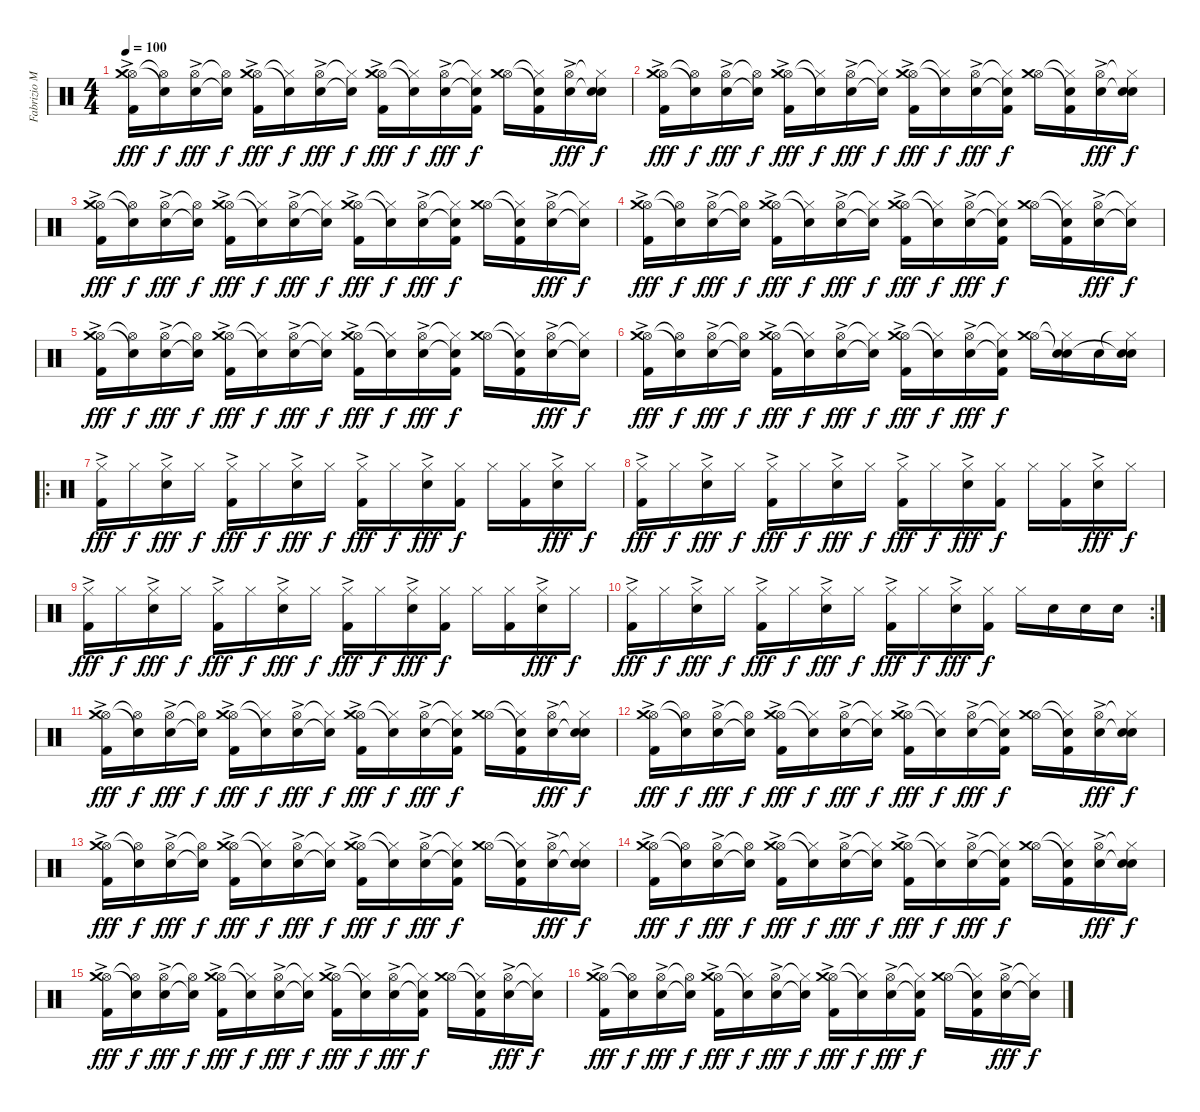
\track ("Fabrizio Morreti (drums)" "Fabrizio M") {instrument percussion}
\staff {score}
\articulation defaults
\ts (4 4)
\tempo 100
\clef neutral
\ks c
("Hi-Hat (open)" "Crash medium (hit)" "Kick (hit) 2"{ac}).16{dy fff} ("Hi-Hat (open)"{t} "Snare (hit)"{t}).16{dy f} ("Hi-Hat (open)" "Electric Snare (hit)"{ac}).16{dy fff} ("Hi-Hat (open)"{t} "Snare (hit)"{t}).16{dy f} ("Hi-Hat (open)" "Crash medium (hit)" "Kick (hit) 2"{ac}).16{dy fff} ("Hi-Hat (closed)"{t} "Snare (hit)"{t}).16{dy f} ("Hi-Hat (open)" "Electric Snare (hit)"{ac}).16{dy fff} ("Hi-Hat (closed)"{t} "Snare (hit)"{t}).16{dy f} ("Hi-Hat (open)" "Crash medium (hit)" "Kick (hit) 2"{ac}).16{dy fff} ("Hi-Hat (closed)"{t} "Snare (hit)"{t}).16{dy f} ("Hi-Hat (open)" "Electric Snare (hit)"{ac}).16{dy fff} ("Hi-Hat (closed)"{t} "Snare (hit)"{t} "Kick (hit) 2").16{dy f} ("Hi-Hat (open)" "Crash medium (hit)").16 ("Hi-Hat (closed)"{t} "Snare (hit)"{t} "Kick (hit) 2").16 ("Hi-Hat (open)" "Electric Snare (hit)"{ac}).16{dy fff} ("Hi-Hat (closed)"{t} "Snare (hit)"{t} "Electric Snare (hit)").16{dy f} |
("Hi-Hat (open)" "Crash medium (hit)" "Kick (hit) 2"{ac}).16{dy fff} ("Hi-Hat (open)"{t} "Snare (hit)"{t}).16{dy f} ("Hi-Hat (open)" "Electric Snare (hit)"{ac}).16{dy fff} ("Hi-Hat (open)"{t} "Snare (hit)"{t}).16{dy f} ("Hi-Hat (open)" "Crash medium (hit)" "Kick (hit) 2"{ac}).16{dy fff} ("Hi-Hat (closed)"{t} "Snare (hit)"{t}).16{dy f} ("Hi-Hat (open)" "Electric Snare (hit)"{ac}).16{dy fff} ("Hi-Hat (closed)"{t} "Snare (hit)"{t}).16{dy f} ("Hi-Hat (open)" "Crash medium (hit)" "Kick (hit) 2"{ac}).16{dy fff} ("Hi-Hat (closed)"{t} "Snare (hit)"{t}).16{dy f} ("Hi-Hat (open)" "Electric Snare (hit)"{ac}).16{dy fff} ("Hi-Hat (closed)"{t} "Snare (hit)"{t} "Kick (hit) 2").16{dy f} ("Hi-Hat (open)" "Crash medium (hit)").16 ("Hi-Hat (closed)"{t} "Snare (hit)"{t} "Kick (hit) 2").16 ("Hi-Hat (open)" "Electric Snare (hit)"{ac}).16{dy fff} ("Hi-Hat (closed)"{t} "Snare (hit)"{t} "Electric Snare (hit)").16{dy f} |
("Hi-Hat (open)" "Crash medium (hit)" "Kick (hit) 2"{ac}).16{dy fff} ("Hi-Hat (open)"{t} "Snare (hit)"{t}).16{dy f} ("Hi-Hat (open)" "Electric Snare (hit)"{ac}).16{dy fff} ("Hi-Hat (open)"{t} "Snare (hit)"{t}).16{dy f} ("Hi-Hat (open)" "Crash medium (hit)" "Kick (hit) 2"{ac}).16{dy fff} ("Hi-Hat (closed)"{t} "Snare (hit)"{t}).16{dy f} ("Hi-Hat (open)" "Electric Snare (hit)"{ac}).16{dy fff} ("Hi-Hat (closed)"{t} "Snare (hit)"{t}).16{dy f} ("Hi-Hat (open)" "Crash medium (hit)" "Kick (hit) 2"{ac}).16{dy fff} ("Hi-Hat (closed)"{t} "Snare (hit)"{t}).16{dy f} ("Hi-Hat (open)" "Electric Snare (hit)"{ac}).16{dy fff} ("Hi-Hat (closed)"{t} "Snare (hit)"{t} "Kick (hit) 2").16{dy f} ("Hi-Hat (open)" "Crash medium (hit)").16 ("Hi-Hat (closed)"{t} "Snare (hit)"{t} "Kick (hit) 2").16 ("Hi-Hat (open)" "Electric Snare (hit)"{ac}).16{dy fff} ("Hi-Hat (closed)"{t} "Snare (hit)"{t}).16{dy f} |
("Hi-Hat (open)" "Crash medium (hit)" "Kick (hit) 2"{ac}).16{dy fff} ("Hi-Hat (open)"{t} "Snare (hit)"{t}).16{dy f} ("Hi-Hat (open)" "Electric Snare (hit)"{ac}).16{dy fff} ("Hi-Hat (open)"{t} "Snare (hit)"{t}).16{dy f} ("Hi-Hat (open)" "Crash medium (hit)" "Kick (hit) 2"{ac}).16{dy fff} ("Hi-Hat (closed)"{t} "Snare (hit)"{t}).16{dy f} ("Hi-Hat (open)" "Electric Snare (hit)"{ac}).16{dy fff} ("Hi-Hat (closed)"{t} "Snare (hit)"{t}).16{dy f} ("Hi-Hat (open)" "Crash medium (hit)" "Kick (hit) 2"{ac}).16{dy fff} ("Hi-Hat (closed)"{t} "Snare (hit)"{t}).16{dy f} ("Hi-Hat (open)" "Electric Snare (hit)"{ac}).16{dy fff} ("Hi-Hat (closed)"{t} "Snare (hit)"{t} "Kick (hit) 2").16{dy f} ("Hi-Hat (open)" "Crash medium (hit)").16 ("Hi-Hat (closed)"{t} "Snare (hit)"{t} "Kick (hit) 2").16 ("Hi-Hat (open)" "Electric Snare (hit)"{ac}).16{dy fff} ("Hi-Hat (closed)"{t} "Snare (hit)"{t}).16{dy f} |
("Hi-Hat (open)" "Crash medium (hit)" "Kick (hit) 2"{ac}).16{dy fff} ("Hi-Hat (open)"{t} "Snare (hit)"{t}).16{dy f} ("Hi-Hat (open)" "Electric Snare (hit)"{ac}).16{dy fff} ("Hi-Hat (open)"{t} "Snare (hit)"{t}).16{dy f} ("Hi-Hat (open)" "Crash medium (hit)" "Kick (hit) 2"{ac}).16{dy fff} ("Hi-Hat (closed)"{t} "Snare (hit)"{t}).16{dy f} ("Hi-Hat (open)" "Electric Snare (hit)"{ac}).16{dy fff} ("Hi-Hat (closed)"{t} "Snare (hit)"{t}).16{dy f} ("Hi-Hat (open)" "Crash medium (hit)" "Kick (hit) 2"{ac}).16{dy fff} ("Hi-Hat (closed)"{t} "Snare (hit)"{t}).16{dy f} ("Hi-Hat (open)" "Electric Snare (hit)"{ac}).16{dy fff} ("Hi-Hat (closed)"{t} "Snare (hit)"{t} "Kick (hit) 2").16{dy f} ("Hi-Hat (open)" "Crash medium (hit)").16 ("Hi-Hat (closed)"{t} "Snare (hit)"{t} "Kick (hit) 2").16 ("Hi-Hat (open)" "Electric Snare (hit)"{ac}).16{dy fff} ("Hi-Hat (closed)"{t} "Snare (hit)"{t}).16{dy f} |
("Hi-Hat (open)" "Crash medium (hit)" "Kick (hit) 2"{ac}).16{dy fff} ("Hi-Hat (open)"{t} "Snare (hit)"{t}).16{dy f} ("Hi-Hat (open)" "Electric Snare (hit)"{ac}).16{dy fff} ("Hi-Hat (open)"{t} "Snare (hit)"{t}).16{dy f} ("Hi-Hat (open)" "Crash medium (hit)" "Kick (hit) 2"{ac}).16{dy fff} ("Hi-Hat (closed)"{t} "Snare (hit)"{t}).16{dy f} ("Hi-Hat (open)" "Electric Snare (hit)"{ac}).16{dy fff} ("Hi-Hat (closed)"{t} "Snare (hit)"{t}).16{dy f} ("Hi-Hat (open)" "Crash medium (hit)" "Kick (hit) 2"{ac}).16{dy fff} ("Hi-Hat (closed)"{t} "Snare (hit)"{t}).16{dy f} ("Hi-Hat (open)" "Electric Snare (hit)"{ac}).16{dy fff} ("Hi-Hat (closed)"{t} "Snare (hit)"{t} "Kick (hit) 2").16{dy f} ("Hi-Hat (open)" "Crash medium (hit)").16 ("Hi-Hat (closed)"{t} "Snare (hit)"{t} "Electric Snare (hit)").16 "Electric Snare (hit)".16 ("Hi-Hat (closed)"{t} "Snare (hit)"{t} "Electric Snare (hit)").16 |
\ro
("Hi-Hat (closed)" "Kick (hit) 2"{ac}).16{dy fff} "Hi-Hat (closed)".16{dy f} ("Hi-Hat (closed)" "Electric Snare (hit)"{ac}).16{dy fff} "Hi-Hat (closed)".16{dy f} ("Hi-Hat (closed)" "Kick (hit) 2"{ac}).16{dy fff} "Hi-Hat (closed)".16{dy f} ("Hi-Hat (closed)" "Electric Snare (hit)"{ac}).16{dy fff} "Hi-Hat (closed)".16{dy f} ("Hi-Hat (closed)" "Kick (hit) 2"{ac}).16{dy fff} "Hi-Hat (closed)".16{dy f} ("Hi-Hat (closed)" "Electric Snare (hit)"{ac}).16{dy fff} ("Hi-Hat (closed)" "Kick (hit) 2").16{dy f} "Hi-Hat (closed)".16 ("Hi-Hat (closed)" "Kick (hit) 2").16 ("Hi-Hat (closed)" "Electric Snare (hit)"{ac}).16{dy fff} "Hi-Hat (closed)".16{dy f} |
("Hi-Hat (closed)" "Kick (hit) 2"{ac}).16{dy fff} "Hi-Hat (closed)".16{dy f} ("Hi-Hat (closed)" "Electric Snare (hit)"{ac}).16{dy fff} "Hi-Hat (closed)".16{dy f} ("Hi-Hat (closed)" "Kick (hit) 2"{ac}).16{dy fff} "Hi-Hat (closed)".16{dy f} ("Hi-Hat (closed)" "Electric Snare (hit)"{ac}).16{dy fff} "Hi-Hat (closed)".16{dy f} ("Hi-Hat (closed)" "Kick (hit) 2"{ac}).16{dy fff} "Hi-Hat (closed)".16{dy f} ("Hi-Hat (closed)" "Electric Snare (hit)"{ac}).16{dy fff} ("Hi-Hat (closed)" "Kick (hit) 2").16{dy f} "Hi-Hat (closed)".16 ("Hi-Hat (closed)" "Kick (hit) 2").16 ("Hi-Hat (closed)" "Electric Snare (hit)"{ac}).16{dy fff} "Hi-Hat (closed)".16{dy f} |
("Hi-Hat (closed)" "Kick (hit) 2"{ac}).16{dy fff} "Hi-Hat (closed)".16{dy f} ("Hi-Hat (closed)" "Electric Snare (hit)"{ac}).16{dy fff} "Hi-Hat (closed)".16{dy f} ("Hi-Hat (closed)" "Kick (hit) 2"{ac}).16{dy fff} "Hi-Hat (closed)".16{dy f} ("Hi-Hat (closed)" "Electric Snare (hit)"{ac}).16{dy fff} "Hi-Hat (closed)".16{dy f} ("Hi-Hat (closed)" "Kick (hit) 2"{ac}).16{dy fff} "Hi-Hat (closed)".16{dy f} ("Hi-Hat (closed)" "Electric Snare (hit)"{ac}).16{dy fff} ("Hi-Hat (closed)" "Kick (hit) 2").16{dy f} "Hi-Hat (closed)".16 ("Hi-Hat (closed)" "Kick (hit) 2").16 ("Hi-Hat (closed)" "Electric Snare (hit)"{ac}).16{dy fff} "Hi-Hat (closed)".16{dy f} |
\rc 2
("Hi-Hat (closed)" "Kick (hit) 2"{ac}).16{dy fff} "Hi-Hat (closed)".16{dy f} ("Hi-Hat (closed)" "Electric Snare (hit)"{ac}).16{dy fff} "Hi-Hat (closed)".16{dy f} ("Hi-Hat (closed)" "Kick (hit) 2"{ac}).16{dy fff} "Hi-Hat (closed)".16{dy f} ("Hi-Hat (closed)" "Electric Snare (hit)"{ac}).16{dy fff} "Hi-Hat (closed)".16{dy f} ("Hi-Hat (closed)" "Kick (hit) 2"{ac}).16{dy fff} "Hi-Hat (closed)".16{dy f} ("Hi-Hat (closed)" "Electric Snare (hit)"{ac}).16{dy fff} ("Hi-Hat (closed)" "Kick (hit) 2").16{dy f} "Hi-Hat (closed)".16 "Electric Snare (hit)".16 "Electric Snare (hit)".16 "Electric Snare (hit)".16 |
("Hi-Hat (open)" "Crash medium (hit)" "Kick (hit) 2"{ac}).16{dy fff} ("Hi-Hat (open)"{t} "Snare (hit)"{t}).16{dy f} ("Hi-Hat (open)" "Electric Snare (hit)"{ac}).16{dy fff} ("Hi-Hat (open)"{t} "Snare (hit)"{t}).16{dy f} ("Hi-Hat (open)" "Crash medium (hit)" "Kick (hit) 2"{ac}).16{dy fff} ("Hi-Hat (closed)"{t} "Snare (hit)"{t}).16{dy f} ("Hi-Hat (open)" "Electric Snare (hit)"{ac}).16{dy fff} ("Hi-Hat (closed)"{t} "Snare (hit)"{t}).16{dy f} ("Hi-Hat (open)" "Crash medium (hit)" "Kick (hit) 2"{ac}).16{dy fff} ("Hi-Hat (closed)"{t} "Snare (hit)"{t}).16{dy f} ("Hi-Hat (open)" "Electric Snare (hit)"{ac}).16{dy fff} ("Hi-Hat (closed)"{t} "Snare (hit)"{t} "Kick (hit) 2").16{dy f} ("Hi-Hat (open)" "Crash medium (hit)").16 ("Hi-Hat (closed)"{t} "Snare (hit)"{t} "Kick (hit) 2").16 ("Hi-Hat (open)" "Electric Snare (hit)"{ac}).16{dy fff} ("Hi-Hat (closed)"{t} "Snare (hit)"{t} "Electric Snare (hit)").16{dy f} |
("Hi-Hat (open)" "Crash medium (hit)" "Kick (hit) 2"{ac}).16{dy fff} ("Hi-Hat (open)"{t} "Snare (hit)"{t}).16{dy f} ("Hi-Hat (open)" "Electric Snare (hit)"{ac}).16{dy fff} ("Hi-Hat (open)"{t} "Snare (hit)"{t}).16{dy f} ("Hi-Hat (open)" "Crash medium (hit)" "Kick (hit) 2"{ac}).16{dy fff} ("Hi-Hat (closed)"{t} "Snare (hit)"{t}).16{dy f} ("Hi-Hat (open)" "Electric Snare (hit)"{ac}).16{dy fff} ("Hi-Hat (closed)"{t} "Snare (hit)"{t}).16{dy f} ("Hi-Hat (open)" "Crash medium (hit)" "Kick (hit) 2"{ac}).16{dy fff} ("Hi-Hat (closed)"{t} "Snare (hit)"{t}).16{dy f} ("Hi-Hat (open)" "Electric Snare (hit)"{ac}).16{dy fff} ("Hi-Hat (closed)"{t} "Snare (hit)"{t} "Kick (hit) 2").16{dy f} ("Hi-Hat (open)" "Crash medium (hit)").16 ("Hi-Hat (closed)"{t} "Snare (hit)"{t} "Kick (hit) 2").16 ("Hi-Hat (open)" "Electric Snare (hit)"{ac}).16{dy fff} ("Hi-Hat (closed)"{t} "Snare (hit)"{t} "Electric Snare (hit)").16{dy f} |
("Hi-Hat (open)" "Crash medium (hit)" "Kick (hit) 2"{ac}).16{dy fff} ("Hi-Hat (open)"{t} "Snare (hit)"{t}).16{dy f} ("Hi-Hat (open)" "Electric Snare (hit)"{ac}).16{dy fff} ("Hi-Hat (open)"{t} "Snare (hit)"{t}).16{dy f} ("Hi-Hat (open)" "Crash medium (hit)" "Kick (hit) 2"{ac}).16{dy fff} ("Hi-Hat (closed)"{t} "Snare (hit)"{t}).16{dy f} ("Hi-Hat (open)" "Electric Snare (hit)"{ac}).16{dy fff} ("Hi-Hat (closed)"{t} "Snare (hit)"{t}).16{dy f} ("Hi-Hat (open)" "Crash medium (hit)" "Kick (hit) 2"{ac}).16{dy fff} ("Hi-Hat (closed)"{t} "Snare (hit)"{t}).16{dy f} ("Hi-Hat (open)" "Electric Snare (hit)"{ac}).16{dy fff} ("Hi-Hat (closed)"{t} "Snare (hit)"{t} "Kick (hit) 2").16{dy f} ("Hi-Hat (open)" "Crash medium (hit)").16 ("Hi-Hat (closed)"{t} "Snare (hit)"{t} "Kick (hit) 2").16 ("Hi-Hat (open)" "Electric Snare (hit)"{ac}).16{dy fff} ("Hi-Hat (closed)"{t} "Snare (hit)"{t} "Electric Snare (hit)").16{dy f} |
("Hi-Hat (open)" "Crash medium (hit)" "Kick (hit) 2"{ac}).16{dy fff} ("Hi-Hat (open)"{t} "Snare (hit)"{t}).16{dy f} ("Hi-Hat (open)" "Electric Snare (hit)"{ac}).16{dy fff} ("Hi-Hat (open)"{t} "Snare (hit)"{t}).16{dy f} ("Hi-Hat (open)" "Crash medium (hit)" "Kick (hit) 2"{ac}).16{dy fff} ("Hi-Hat (closed)"{t} "Snare (hit)"{t}).16{dy f} ("Hi-Hat (open)" "Electric Snare (hit)"{ac}).16{dy fff} ("Hi-Hat (closed)"{t} "Snare (hit)"{t}).16{dy f} ("Hi-Hat (open)" "Crash medium (hit)" "Kick (hit) 2"{ac}).16{dy fff} ("Hi-Hat (closed)"{t} "Snare (hit)"{t}).16{dy f} ("Hi-Hat (open)" "Electric Snare (hit)"{ac}).16{dy fff} ("Hi-Hat (closed)"{t} "Snare (hit)"{t} "Kick (hit) 2").16{dy f} ("Hi-Hat (open)" "Crash medium (hit)").16 ("Hi-Hat (closed)"{t} "Snare (hit)"{t} "Kick (hit) 2").16 ("Hi-Hat (open)" "Electric Snare (hit)"{ac}).16{dy fff} ("Hi-Hat (closed)"{t} "Snare (hit)"{t} "Electric Snare (hit)").16{dy f} |
("Hi-Hat (open)" "Crash medium (hit)" "Kick (hit) 2"{ac}).16{dy fff} ("Hi-Hat (open)"{t} "Snare (hit)"{t}).16{dy f} ("Hi-Hat (open)" "Electric Snare (hit)"{ac}).16{dy fff} ("Hi-Hat (open)"{t} "Snare (hit)"{t}).16{dy f} ("Hi-Hat (open)" "Crash medium (hit)" "Kick (hit) 2"{ac}).16{dy fff} ("Hi-Hat (closed)"{t} "Snare (hit)"{t}).16{dy f} ("Hi-Hat (open)" "Electric Snare (hit)"{ac}).16{dy fff} ("Hi-Hat (closed)"{t} "Snare (hit)"{t}).16{dy f} ("Hi-Hat (open)" "Crash medium (hit)" "Kick (hit) 2"{ac}).16{dy fff} ("Hi-Hat (closed)"{t} "Snare (hit)"{t}).16{dy f} ("Hi-Hat (open)" "Electric Snare (hit)"{ac}).16{dy fff} ("Hi-Hat (closed)"{t} "Snare (hit)"{t} "Kick (hit) 2").16{dy f} ("Hi-Hat (open)" "Crash medium (hit)").16 ("Hi-Hat (closed)"{t} "Snare (hit)"{t} "Kick (hit) 2").16 ("Hi-Hat (open)" "Electric Snare (hit)"{ac}).16{dy fff} ("Hi-Hat (closed)"{t} "Snare (hit)"{t}).16{dy f} |
("Hi-Hat (open)" "Crash medium (hit)" "Kick (hit) 2"{ac}).16{dy fff} ("Hi-Hat (open)"{t} "Snare (hit)"{t}).16{dy f} ("Hi-Hat (open)" "Electric Snare (hit)"{ac}).16{dy fff} ("Hi-Hat (open)"{t} "Snare (hit)"{t}).16{dy f} ("Hi-Hat (open)" "Crash medium (hit)" "Kick (hit) 2"{ac}).16{dy fff} ("Hi-Hat (closed)"{t} "Snare (hit)"{t}).16{dy f} ("Hi-Hat (open)" "Electric Snare (hit)"{ac}).16{dy fff} ("Hi-Hat (closed)"{t} "Snare (hit)"{t}).16{dy f} ("Hi-Hat (open)" "Crash medium (hit)" "Kick (hit) 2"{ac}).16{dy fff} ("Hi-Hat (closed)"{t} "Snare (hit)"{t}).16{dy f} ("Hi-Hat (open)" "Electric Snare (hit)"{ac}).16{dy fff} ("Hi-Hat (closed)"{t} "Snare (hit)"{t} "Kick (hit) 2").16{dy f} ("Hi-Hat (open)" "Crash medium (hit)").16 ("Hi-Hat (closed)"{t} "Snare (hit)"{t} "Kick (hit) 2").16 ("Hi-Hat (open)" "Electric Snare (hit)"{ac}).16{dy fff} ("Hi-Hat (closed)"{t} "Snare (hit)"{t}).16{dy f}
